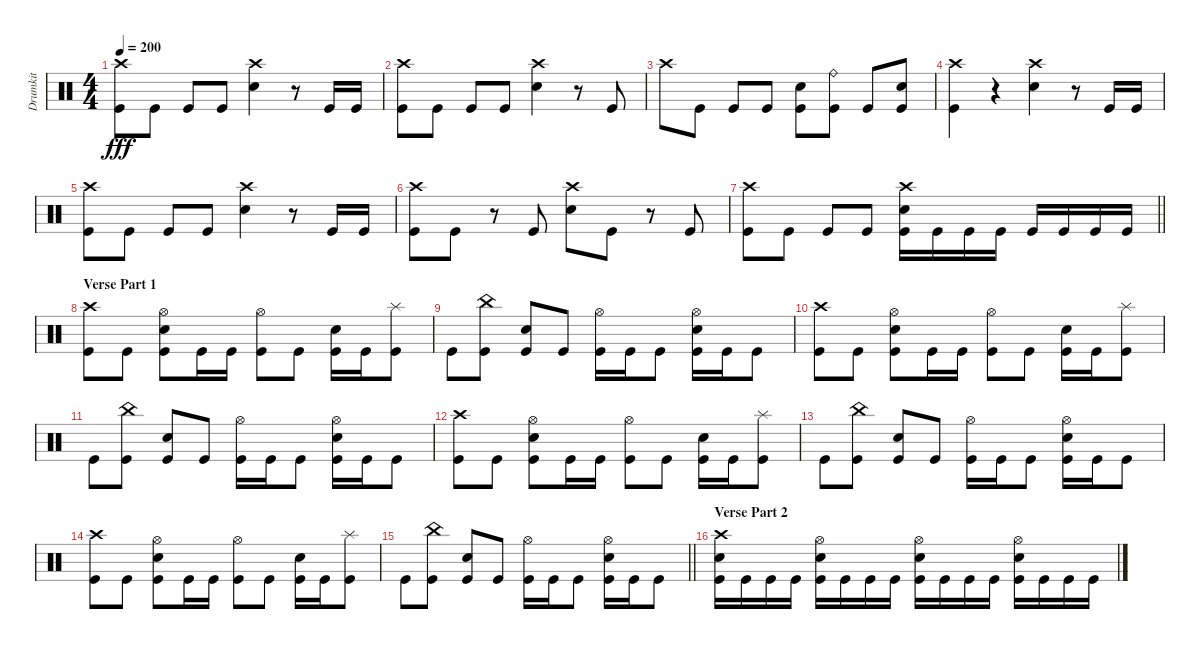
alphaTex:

\track ("Drumkit" "Drumkit") {instrument percussion}
\staff {score}
\articulation defaults
\ts (4 4)
\tempo 200
\clef neutral
\ks c
("Crash high (hit)" "Kick (hit)").8{dy fff} "Kick (hit)".8 "Kick (hit)".8 "Kick (hit)".8 ("Crash high (hit)" "Snare (hit) 2").4 r.8 "Kick (hit)".16 "Kick (hit)".16 |
("Crash high (hit)" "Kick (hit)").8 "Kick (hit)".8 "Kick (hit)".8 "Kick (hit)".8 ("Crash high (hit)" "Snare (hit) 2").4 r.8 "Kick (hit)".8 |
"Crash high (hit)".8 "Kick (hit)".8 "Kick (hit)".8 "Kick (hit)".8 ("Snare (hit) 2" "Kick (hit)").8 ("Ride (bell)" "Kick (hit)").8 "Kick (hit)".8 ("Kick (hit)" "Snare (hit) 2").8 |
("Crash high (hit)" "Kick (hit)").4 r.4 ("Crash high (hit)" "Snare (hit) 2").4 r.8 "Kick (hit)".16 "Kick (hit)".16 |
("Crash high (hit)" "Kick (hit)").8 "Kick (hit)".8 "Kick (hit)".8 "Kick (hit)".8 ("Crash high (hit)" "Snare (hit) 2").4 r.8 "Kick (hit)".16 "Kick (hit)".16 |
("Crash high (hit)" "Kick (hit)").8 "Kick (hit)".8 r.8 "Kick (hit)".8 ("Crash high (hit)" "Snare (hit) 2").8 "Kick (hit)".8 r.8 "Kick (hit)".8 |
\barLineRight lightlight
("Crash high (hit)" "Kick (hit)").8 "Kick (hit)".8 "Kick (hit)".8 "Kick (hit)".8 ("Snare (hit) 2" "Kick (hit)" "Crash high (hit)").16 "Kick (hit)".16 "Kick (hit)".16 "Kick (hit)".16 "Kick (hit)".16 "Kick (hit)".16 "Kick (hit)".16 "Kick (hit)".16 |
\section ("" "Verse Part 1")
("Kick (hit)" "Crash high (hit)").8 "Kick (hit)".8 ("Kick (hit)" "Snare (hit) 2" "Hi-Hat (open)").8 "Kick (hit)".16 "Kick (hit)".16 ("Kick (hit)" "Hi-Hat (open)").8 "Kick (hit)".8 ("Kick (hit)" "Snare (hit) 2").16 "Kick (hit)".16 ("Kick (hit)" "Splash (hit)").8 |
"Kick (hit)".8 ("Kick (hit)" "China (hit)").8 ("Kick (hit)" "Snare (hit) 2").8 "Kick (hit)".8 ("Kick (hit)" "Hi-Hat (open)").16 "Kick (hit)".16 "Kick (hit)".8 ("Kick (hit)" "Snare (hit) 2" "Hi-Hat (open)").16 "Kick (hit)".16 "Kick (hit)".8 |
("Kick (hit)" "Crash high (hit)").8 "Kick (hit)".8 ("Kick (hit)" "Snare (hit) 2" "Hi-Hat (open)").8 "Kick (hit)".16 "Kick (hit)".16 ("Kick (hit)" "Hi-Hat (open)").8 "Kick (hit)".8 ("Kick (hit)" "Snare (hit) 2").16 "Kick (hit)".16 ("Kick (hit)" "Splash (hit)").8 |
"Kick (hit)".8 ("Kick (hit)" "China (hit)").8 ("Kick (hit)" "Snare (hit) 2").8 "Kick (hit)".8 ("Kick (hit)" "Hi-Hat (open)").16 "Kick (hit)".16 "Kick (hit)".8 ("Kick (hit)" "Snare (hit) 2" "Hi-Hat (open)").16 "Kick (hit)".16 "Kick (hit)".8 |
("Kick (hit)" "Crash high (hit)").8 "Kick (hit)".8 ("Kick (hit)" "Snare (hit) 2" "Hi-Hat (open)").8 "Kick (hit)".16 "Kick (hit)".16 ("Kick (hit)" "Hi-Hat (open)").8 "Kick (hit)".8 ("Kick (hit)" "Snare (hit) 2").16 "Kick (hit)".16 ("Kick (hit)" "Splash (hit)").8 |
"Kick (hit)".8 ("Kick (hit)" "China (hit)").8 ("Kick (hit)" "Snare (hit) 2").8 "Kick (hit)".8 ("Kick (hit)" "Hi-Hat (open)").16 "Kick (hit)".16 "Kick (hit)".8 ("Kick (hit)" "Snare (hit) 2" "Hi-Hat (open)").16 "Kick (hit)".16 "Kick (hit)".8 |
("Kick (hit)" "Crash high (hit)").8 "Kick (hit)".8 ("Kick (hit)" "Snare (hit) 2" "Hi-Hat (open)").8 "Kick (hit)".16 "Kick (hit)".16 ("Kick (hit)" "Hi-Hat (open)").8 "Kick (hit)".8 ("Kick (hit)" "Snare (hit) 2").16 "Kick (hit)".16 ("Kick (hit)" "Splash (hit)").8 |
\barLineRight lightlight "Kick (hit)".8
("Kick (hit)" "China (hit)").8 ("Kick (hit)" "Snare (hit) 2").8 "Kick (hit)".8 ("Kick (hit)" "Hi-Hat (open)").16 "Kick (hit)".16 "Kick (hit)".8 ("Kick (hit)" "Snare (hit) 2" "Hi-Hat (open)").16 "Kick (hit)".16 "Kick (hit)".8 |
\section ("" "Verse Part 2")
("Snare (hit) 2" "Crash high (hit)" "Kick (hit)").16 "Kick (hit)".16 "Kick (hit)".16 "Kick (hit)".16 ("Snare (hit) 2" "Hi-Hat (open)" "Kick (hit)").16 "Kick (hit)".16 "Kick (hit)".16 "Kick (hit)".16 ("Snare (hit) 2" "Hi-Hat (open)" "Kick (hit)").16 "Kick (hit)".16 "Kick (hit)".16 "Kick (hit)".16 ("Snare (hit) 2" "Hi-Hat (open)" "Kick (hit)").16 "Kick (hit)".16 "Kick (hit)".16 "Kick (hit)".16
